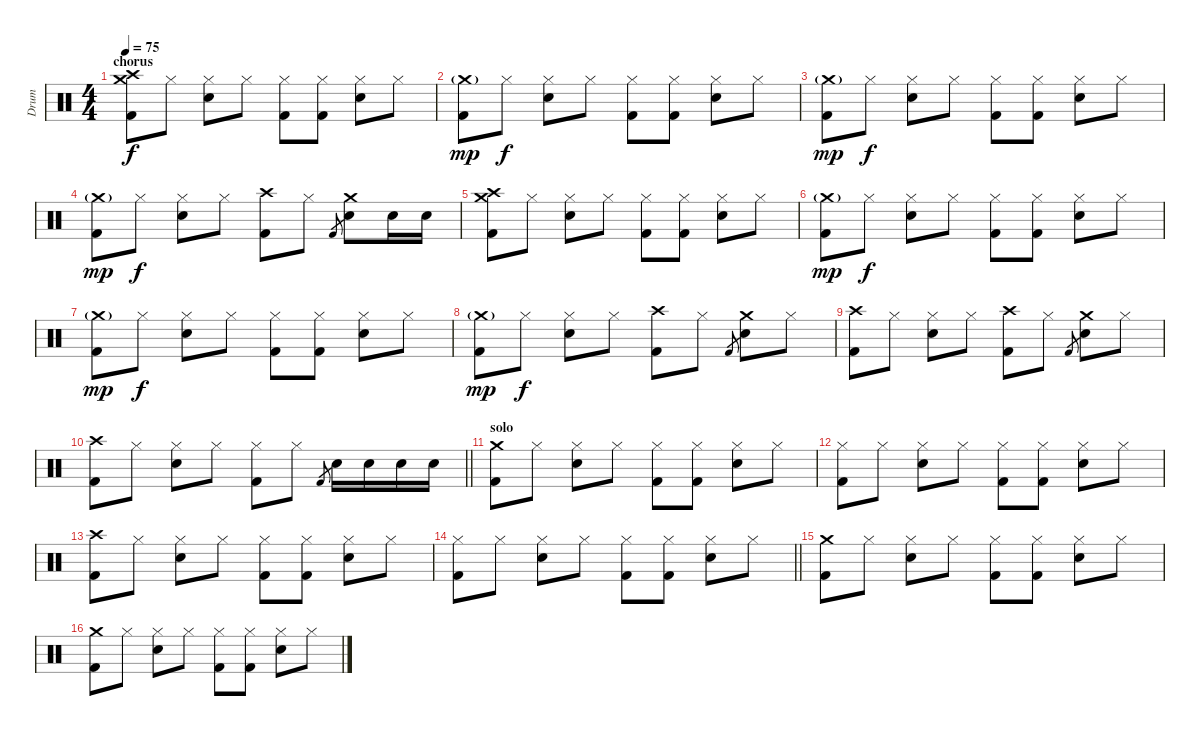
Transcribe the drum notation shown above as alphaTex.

\track ("Drum" "Drum") {instrument percussion}
\staff {score}
\articulation defaults
\ts (4 4)
\section ("" "chorus")
\tempo 75
\clef neutral
\ks c
("Kick (hit) 2" "Crash high (hit)" "Crash medium (hit)").8{dy f} "Hi-Hat (closed)".8 ("Electric Snare (hit)" "Hi-Hat (closed)").8 "Hi-Hat (closed)".8 ("Kick (hit) 2" "Hi-Hat (closed)").8 ("Kick (hit) 2" "Hi-Hat (closed)").8 ("Electric Snare (hit)" "Hi-Hat (closed)").8 "Hi-Hat (closed)".8 |
("Kick (hit) 2" "Crash medium (hit)"{g}).8{dy mp} "Hi-Hat (closed)".8{dy f} ("Electric Snare (hit)" "Hi-Hat (closed)").8 "Hi-Hat (closed)".8 ("Kick (hit) 2" "Hi-Hat (closed)").8 ("Kick (hit) 2" "Hi-Hat (closed)").8 ("Electric Snare (hit)" "Hi-Hat (closed)").8 "Hi-Hat (closed)".8 |
("Kick (hit) 2" "Crash medium (hit)"{g}).8{dy mp} "Hi-Hat (closed)".8{dy f} ("Electric Snare (hit)" "Hi-Hat (closed)").8 "Hi-Hat (closed)".8 ("Kick (hit) 2" "Hi-Hat (closed)").8 ("Kick (hit) 2" "Hi-Hat (closed)").8 ("Electric Snare (hit)" "Hi-Hat (closed)").8 "Hi-Hat (closed)".8 |
("Kick (hit) 2" "Crash medium (hit)"{g}).8{dy mp} "Hi-Hat (closed)".8{dy f} ("Electric Snare (hit)" "Hi-Hat (closed)").8 "Hi-Hat (closed)".8 ("Kick (hit) 2" "Crash high (hit)").8 "Hi-Hat (closed)".8 "Kick (hit) 2".8{gr} ("Electric Snare (hit)" "Crash medium (hit)").8 "Electric Snare (hit)".16 "Electric Snare (hit)".16 |
("Kick (hit) 2" "Crash high (hit)" "Crash medium (hit)").8 "Hi-Hat (closed)".8 ("Electric Snare (hit)" "Hi-Hat (closed)").8 "Hi-Hat (closed)".8 ("Kick (hit) 2" "Hi-Hat (closed)").8 ("Kick (hit) 2" "Hi-Hat (closed)").8 ("Electric Snare (hit)" "Hi-Hat (closed)").8 "Hi-Hat (closed)".8 |
("Kick (hit) 2" "Crash medium (hit)"{g}).8{dy mp} "Hi-Hat (closed)".8{dy f} ("Electric Snare (hit)" "Hi-Hat (closed)").8 "Hi-Hat (closed)".8 ("Kick (hit) 2" "Hi-Hat (closed)").8 ("Kick (hit) 2" "Hi-Hat (closed)").8 ("Electric Snare (hit)" "Hi-Hat (closed)").8 "Hi-Hat (closed)".8 |
("Kick (hit) 2" "Crash medium (hit)"{g}).8{dy mp} "Hi-Hat (closed)".8{dy f} ("Electric Snare (hit)" "Hi-Hat (closed)").8 "Hi-Hat (closed)".8 ("Kick (hit) 2" "Hi-Hat (closed)").8 ("Kick (hit) 2" "Hi-Hat (closed)").8 ("Electric Snare (hit)" "Hi-Hat (closed)").8 "Hi-Hat (closed)".8 |
("Kick (hit) 2" "Crash medium (hit)"{g}).8{dy mp} "Hi-Hat (closed)".8{dy f} ("Electric Snare (hit)" "Hi-Hat (closed)").8 "Hi-Hat (closed)".8 ("Kick (hit) 2" "Crash high (hit)").8 "Hi-Hat (closed)".8 "Kick (hit) 2".8{gr} ("Electric Snare (hit)" "Crash medium (hit)").8 "Hi-Hat (closed)".8 |
("Kick (hit) 2" "Crash high (hit)").8 "Hi-Hat (closed)".8 ("Electric Snare (hit)" "Hi-Hat (closed)").8 "Hi-Hat (closed)".8 ("Kick (hit) 2" "Crash high (hit)").8 "Hi-Hat (closed)".8 "Kick (hit) 2".8{gr} ("Electric Snare (hit)" "Crash medium (hit)").8 "Hi-Hat (closed)".8 |
\barLineRight lightlight
("Kick (hit) 2" "Crash high (hit)").8 "Hi-Hat (closed)".8 ("Electric Snare (hit)" "Hi-Hat (closed)").8 "Hi-Hat (closed)".8 ("Kick (hit) 2" "Hi-Hat (closed)").8 "Hi-Hat (closed)".8 "Kick (hit) 2".8{gr} "Electric Snare (hit)".16 "Electric Snare (hit)".16 "Electric Snare (hit)".16 "Electric Snare (hit)".16 |
\section ("" "solo")
("Kick (hit) 2" "Crash medium (hit)").8 "Hi-Hat (closed)".8 ("Electric Snare (hit)" "Hi-Hat (closed)").8 "Hi-Hat (closed)".8 ("Kick (hit) 2" "Hi-Hat (closed)").8 ("Kick (hit) 2" "Hi-Hat (closed)").8 ("Electric Snare (hit)" "Hi-Hat (closed)").8 "Hi-Hat (closed)".8 |
("Kick (hit) 2" "Hi-Hat (closed)").8 "Hi-Hat (closed)".8 ("Electric Snare (hit)" "Hi-Hat (closed)").8 "Hi-Hat (closed)".8 ("Kick (hit) 2" "Hi-Hat (closed)").8 ("Kick (hit) 2" "Hi-Hat (closed)").8 ("Electric Snare (hit)" "Hi-Hat (closed)").8 "Hi-Hat (closed)".8 |
("Kick (hit) 2" "Crash high (hit)").8 "Hi-Hat (closed)".8 ("Electric Snare (hit)" "Hi-Hat (closed)").8 "Hi-Hat (closed)".8 ("Kick (hit) 2" "Hi-Hat (closed)").8 ("Kick (hit) 2" "Hi-Hat (closed)").8 ("Electric Snare (hit)" "Hi-Hat (closed)").8 "Hi-Hat (closed)".8 |
\barLineRight lightlight
("Kick (hit) 2" "Hi-Hat (closed)").8 "Hi-Hat (closed)".8 ("Electric Snare (hit)" "Hi-Hat (closed)").8 "Hi-Hat (closed)".8 ("Kick (hit) 2" "Hi-Hat (closed)").8 ("Kick (hit) 2" "Hi-Hat (closed)").8 ("Electric Snare (hit)" "Hi-Hat (closed)").8 "Hi-Hat (closed)".8 |
("Kick (hit) 2" "Crash medium (hit)").8 "Hi-Hat (closed)".8 ("Electric Snare (hit)" "Hi-Hat (closed)").8 "Hi-Hat (closed)".8 ("Kick (hit) 2" "Hi-Hat (closed)").8 ("Kick (hit) 2" "Hi-Hat (closed)").8 ("Electric Snare (hit)" "Hi-Hat (closed)").8 "Hi-Hat (closed)".8 |
("Kick (hit) 2" "Crash medium (hit)").8 "Hi-Hat (closed)".8 ("Electric Snare (hit)" "Hi-Hat (closed)").8 "Hi-Hat (closed)".8 ("Kick (hit) 2" "Hi-Hat (closed)").8 ("Kick (hit) 2" "Hi-Hat (closed)").8 ("Electric Snare (hit)" "Hi-Hat (closed)").8 "Hi-Hat (closed)".8
